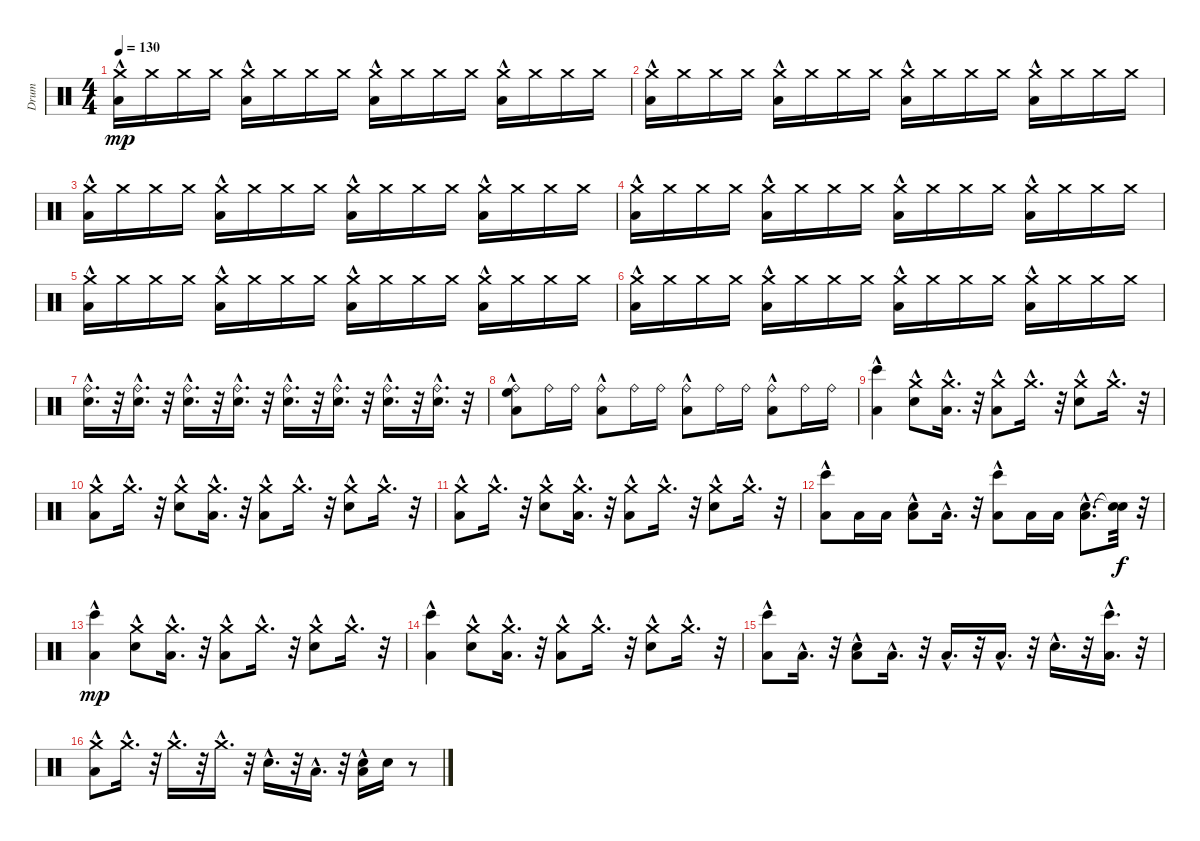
\track ("Drum" "Drum") {instrument percussion}
\staff {score}
\articulation defaults
\ts (4 4)
\tempo 130
\clef neutral
\ks c
("Low Tom (hit)"{hac} "Crash medium (hit)").16{dy mp} "Crash medium (hit)".16 "Crash medium (hit)".16 "Crash medium (hit)".16 ("Low Tom (hit)"{hac} "Crash medium (hit)").16 "Crash medium (hit)".16 "Crash medium (hit)".16 "Crash medium (hit)".16 ("Low Tom (hit)"{hac} "Crash medium (hit)").16 "Crash medium (hit)".16 "Crash medium (hit)".16 "Crash medium (hit)".16 ("Low Tom (hit)"{hac} "Crash medium (hit)").16 "Crash medium (hit)".16 "Crash medium (hit)".16 "Crash medium (hit)".16 |
("Low Tom (hit)"{hac} "Crash medium (hit)").16 "Crash medium (hit)".16 "Crash medium (hit)".16 "Crash medium (hit)".16 ("Low Tom (hit)"{hac} "Crash medium (hit)").16 "Crash medium (hit)".16 "Crash medium (hit)".16 "Crash medium (hit)".16 ("Low Tom (hit)"{hac} "Crash medium (hit)").16 "Crash medium (hit)".16 "Crash medium (hit)".16 "Crash medium (hit)".16 ("Low Tom (hit)"{hac} "Crash medium (hit)").16 "Crash medium (hit)".16 "Crash medium (hit)".16 "Crash medium (hit)".16 |
("Low Tom (hit)"{hac} "Crash medium (hit)").16 "Crash medium (hit)".16 "Crash medium (hit)".16 "Crash medium (hit)".16 ("Low Tom (hit)"{hac} "Crash medium (hit)").16 "Crash medium (hit)".16 "Crash medium (hit)".16 "Crash medium (hit)".16 ("Low Tom (hit)"{hac} "Crash medium (hit)").16 "Crash medium (hit)".16 "Crash medium (hit)".16 "Crash medium (hit)".16 ("Low Tom (hit)"{hac} "Crash medium (hit)").16 "Crash medium (hit)".16 "Crash medium (hit)".16 "Crash medium (hit)".16 |
("Low Tom (hit)"{hac} "Crash medium (hit)").16 "Crash medium (hit)".16 "Crash medium (hit)".16 "Crash medium (hit)".16 ("Low Tom (hit)"{hac} "Crash medium (hit)").16 "Crash medium (hit)".16 "Crash medium (hit)".16 "Crash medium (hit)".16 ("Low Tom (hit)"{hac} "Crash medium (hit)").16 "Crash medium (hit)".16 "Crash medium (hit)".16 "Crash medium (hit)".16 ("Low Tom (hit)"{hac} "Crash medium (hit)").16 "Crash medium (hit)".16 "Crash medium (hit)".16 "Crash medium (hit)".16 |
("Low Tom (hit)"{hac} "Crash medium (hit)").16 "Crash medium (hit)".16 "Crash medium (hit)".16 "Crash medium (hit)".16 ("Low Tom (hit)"{hac} "Crash medium (hit)").16 "Crash medium (hit)".16 "Crash medium (hit)".16 "Crash medium (hit)".16 ("Low Tom (hit)"{hac} "Crash medium (hit)").16 "Crash medium (hit)".16 "Crash medium (hit)".16 "Crash medium (hit)".16 ("Low Tom (hit)"{hac} "Crash medium (hit)").16 "Crash medium (hit)".16 "Crash medium (hit)".16 "Crash medium (hit)".16 |
("Low Tom (hit)"{hac} "Crash medium (hit)").16 "Crash medium (hit)".16 "Crash medium (hit)".16 "Crash medium (hit)".16 ("Low Tom (hit)"{hac} "Crash medium (hit)").16 "Crash medium (hit)".16 "Crash medium (hit)".16 "Crash medium (hit)".16 ("Low Tom (hit)"{hac} "Crash medium (hit)").16 "Crash medium (hit)".16 "Crash medium (hit)".16 "Crash medium (hit)".16 ("Low Tom (hit)"{hac} "Crash medium (hit)").16 "Crash medium (hit)".16 "Crash medium (hit)".16 "Crash medium (hit)".16 |
("Snare (hit) 2"{hac} "Ride (bell)"{hac}).16{d} r.32 ("Snare (hit) 2"{hac} "Ride (bell)"{hac}).16{d} r.32 ("Snare (hit) 2"{hac} "Ride (bell)"{hac}).16{d} r.32 ("Snare (hit) 2"{hac} "Ride (bell)"{hac}).16{d} r.32 ("Snare (hit) 2"{hac} "Ride (bell)"{hac}).16{d} r.32 ("Snare (hit) 2"{hac} "Ride (bell)"{hac}).16{d} r.32 ("Snare (hit) 2"{hac} "Ride (bell)"{hac}).16{d} r.32 ("Snare (hit) 2"{hac} "Ride (bell)"{hac}).16{d} r.32 |
("Low Tom (hit)"{hac} "High Floor Tom (hit)"{hac} "Ride (bell)"{hac}).8 "Ride (bell)".16 "Ride (bell)".16 ("Low Tom (hit)"{hac} "Ride (bell)"{hac}).8 "Ride (bell)".16 "Ride (bell)".16 ("Low Tom (hit)"{hac} "Ride (bell)"{hac}).8 "Ride (bell)".16 "Ride (bell)".16 ("Low Tom (hit)"{hac} "Ride (bell)"{hac}).8 "Ride (bell)".16 "Ride (bell)".16 |
("Low Tom (hit)" "Bongo High (hit)"{hac}).4 ("Snare (hit) 2"{hac} "Crash medium (hit)"{hac}).8 ("Low Tom (hit)"{hac} "Crash medium (hit)"{hac}).16{d} r.32 ("Low Tom (hit)"{hac} "Crash medium (hit)"{hac}).8 "Crash medium (hit)"{hac}.16{d} r.32 ("Snare (hit) 2"{hac} "Crash medium (hit)"{hac}).8 "Crash medium (hit)"{hac}.16{d} r.32 |
("Low Tom (hit)" "Crash medium (hit)"{hac}).8 "Crash medium (hit)"{hac}.16{d} r.32 ("Snare (hit) 2"{hac} "Crash medium (hit)"{hac}).8 ("Low Tom (hit)"{hac} "Crash medium (hit)"{hac}).16{d} r.32 ("Low Tom (hit)"{hac} "Crash medium (hit)"{hac}).8 "Crash medium (hit)"{hac}.16{d} r.32 ("Snare (hit) 2"{hac} "Crash medium (hit)"{hac}).8 "Crash medium (hit)"{hac}.16{d} r.32 |
("Low Tom (hit)" "Crash medium (hit)"{hac}).8 "Crash medium (hit)"{hac}.16{d} r.32 ("Snare (hit) 2"{hac} "Crash medium (hit)"{hac}).8 ("Low Tom (hit)"{hac} "Crash medium (hit)"{hac}).16{d} r.32 ("Low Tom (hit)"{hac} "Crash medium (hit)"{hac}).8 "Crash medium (hit)"{hac}.16{d} r.32 ("Snare (hit) 2"{hac} "Crash medium (hit)"{hac}).8 "Crash medium (hit)"{hac}.16{d} r.32 |
("Bongo High (hit)"{hac} "Low Tom (hit)"{hac}).8 "Low Tom (hit)".16 "Low Tom (hit)".16 ("Snare (hit) 2"{hac} "Low Tom (hit)"{hac}).8 "Low Tom (hit)"{hac}.16{d} r.32 ("Bongo High (hit)"{hac} "Low Tom (hit)"{hac}).8 "Low Tom (hit)".16 "Low Tom (hit)".16 ("Snare (hit) 2"{hac} "Low Tom (hit)"{hac}).8{d} ("Snare (hit)"{t} "Snare (hit)"{t}).32{dy f} r.32 |
("Low Tom (hit)" "Bongo High (hit)"{hac}).4{dy mp} ("Snare (hit) 2"{hac} "Crash medium (hit)"{hac}).8 ("Low Tom (hit)"{hac} "Crash medium (hit)"{hac}).16{d} r.32 ("Low Tom (hit)"{hac} "Crash medium (hit)"{hac}).8 "Crash medium (hit)"{hac}.16{d} r.32 ("Snare (hit) 2"{hac} "Crash medium (hit)"{hac}).8 "Crash medium (hit)"{hac}.16{d} r.32 |
("Low Tom (hit)" "Bongo High (hit)"{hac}).4 ("Snare (hit) 2"{hac} "Crash medium (hit)"{hac}).8 ("Low Tom (hit)"{hac} "Crash medium (hit)"{hac}).16{d} r.32 ("Low Tom (hit)"{hac} "Crash medium (hit)"{hac}).8 "Crash medium (hit)"{hac}.16{d} r.32 ("Snare (hit) 2"{hac} "Crash medium (hit)"{hac}).8 "Crash medium (hit)"{hac}.16{d} r.32 |
("Bongo High (hit)"{hac} "Low Tom (hit)"{hac}).8 "Low Tom (hit)"{hac}.16{d} r.32 ("Snare (hit) 2"{hac} "Low Tom (hit)"{hac}).8 "Low Tom (hit)"{hac}.16{d} r.32 "Low Tom (hit)"{hac}.16{d} r.32 "Low Tom (hit)"{hac}.16{d} r.32 "Snare (hit) 2"{hac}.16{d} r.32 ("Bongo High (hit)"{hac} "Low Tom (hit)"{hac}).16{d} r.32 |
("Low Tom (hit)"{hac} "Crash medium (hit)"{hac}).8 "Crash medium (hit)"{hac}.16{d} r.32 "Crash medium (hit)"{hac}.16{d} r.32 "Crash medium (hit)"{hac}.16{d} r.32 "Snare (hit) 2"{hac}.16{d} r.32 "Low Tom (hit)"{hac}.16{d} r.32 ("Low Tom (hit)"{hac} "Snare (hit) 2").16 "Snare (hit) 2".16 r.8
